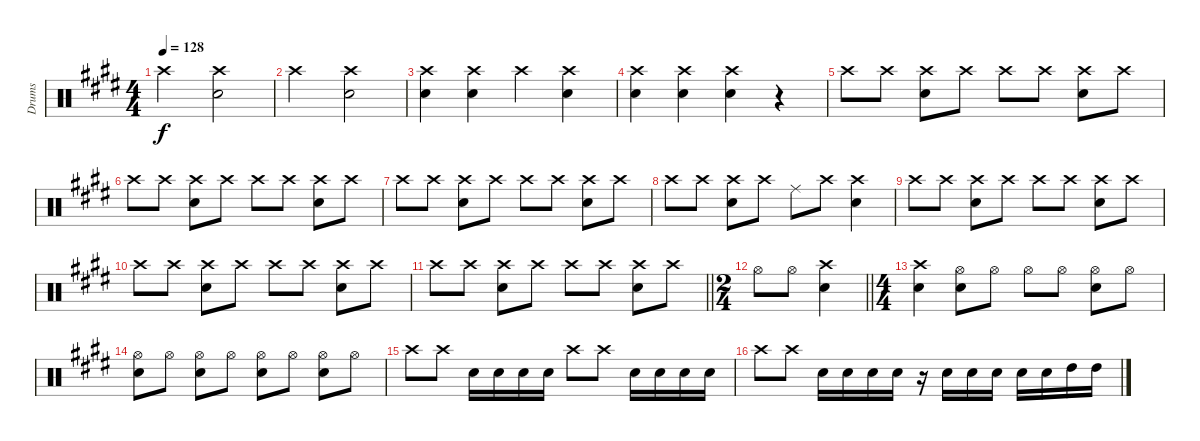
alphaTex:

\track ("Drums" "Drums") {instrument percussion}
\staff {score}
\articulation defaults
\ts (4 4)
\tempo 128
\clef neutral
\ks e "Crash high (hit)".2{dy f}
("Crash high (hit)" "Snare (hit) 2").2 |
"Crash high (hit)".2 ("Crash high (hit)" "Snare (hit) 2").2 |
("Crash high (hit)" "Snare (hit) 2").4 ("Crash high (hit)" "Snare (hit) 2").4 "Crash high (hit)".4 ("Crash high (hit)" "Snare (hit) 2").4 |
("Crash high (hit)" "Snare (hit) 2").4 ("Crash high (hit)" "Snare (hit) 2").4 ("Crash high (hit)" "Snare (hit) 2").4 r.4 |
"Crash high (hit)".8 "Crash high (hit)".8 ("Crash high (hit)" "Snare (hit) 2").8 "Crash high (hit)".8 "Crash high (hit)".8 "Crash high (hit)".8 ("Crash high (hit)" "Snare (hit) 2").8 "Crash high (hit)".8 |
"Crash high (hit)".8 "Crash high (hit)".8 ("Crash high (hit)" "Snare (hit) 2").8 "Crash high (hit)".8 "Crash high (hit)".8 "Crash high (hit)".8 ("Crash high (hit)" "Snare (hit) 2").8 "Crash high (hit)".8 |
"Crash high (hit)".8 "Crash high (hit)".8 ("Crash high (hit)" "Snare (hit) 2").8 "Crash high (hit)".8 "Crash high (hit)".8 "Crash high (hit)".8 ("Crash high (hit)" "Snare (hit) 2").8 "Crash high (hit)".8 |
"Crash high (hit)".8 "Crash high (hit)".8 ("Crash high (hit)" "Snare (hit) 2").8 "Crash high (hit)".8 "Ride (middle)".8 "Crash high (hit)".8 ("Crash high (hit)" "Snare (hit) 2").4 |
"Crash high (hit)".8 "Crash high (hit)".8 ("Crash high (hit)" "Snare (hit) 2").8 "Crash high (hit)".8 "Crash high (hit)".8 "Crash high (hit)".8 ("Crash high (hit)" "Snare (hit) 2").8 "Crash high (hit)".8 |
"Crash high (hit)".8 "Crash high (hit)".8 ("Crash high (hit)" "Snare (hit) 2").8 "Crash high (hit)".8 "Crash high (hit)".8 "Crash high (hit)".8 ("Crash high (hit)" "Snare (hit) 2").8 "Crash high (hit)".8 |
\barLineRight lightlight "Crash high (hit)".8 "Crash high (hit)".8
("Crash high (hit)" "Snare (hit) 2").8 "Crash high (hit)".8 "Crash high (hit)".8 "Crash high (hit)".8 ("Crash high (hit)" "Snare (hit) 2").8 "Crash high (hit)".8 |
\ts (2 4)
\barLineRight lightlight "Hi-Hat (open)".8 "Hi-Hat (open)".8
("Crash high (hit)" "Snare (hit) 2").4 |
\ts (4 4)
("Crash high (hit)" "Snare (hit) 2").4 ("Hi-Hat (open)" "Snare (hit) 2").8 "Hi-Hat (open)".8 "Hi-Hat (open)".8 "Hi-Hat (open)".8 ("Hi-Hat (open)" "Snare (hit) 2").8 "Hi-Hat (open)".8 |
("Hi-Hat (open)" "Snare (hit) 2").8 "Hi-Hat (open)".8 ("Hi-Hat (open)" "Snare (hit) 2").8 "Hi-Hat (open)".8 ("Hi-Hat (open)" "Snare (hit) 2").8 "Hi-Hat (open)".8 ("Hi-Hat (open)" "Snare (hit) 2").8 "Hi-Hat (open)".8 |
"Crash high (hit)".8 "Crash high (hit)".8 "Snare (hit) 2".16 "Snare (hit) 2".16 "Snare (hit) 2".16 "Snare (hit) 2".16 "Crash high (hit)".8 "Crash high (hit)".8 "Snare (hit) 2".16 "Snare (hit) 2".16 "Snare (hit) 2".16 "Snare (hit) 2".16 |
"Crash high (hit)".8 "Crash high (hit)".8 "Snare (hit) 2".16 "Snare (hit) 2".16 "Snare (hit) 2".16 "Snare (hit) 2".16 r.16 "Snare (hit) 2".16 "Snare (hit) 2".16 "Snare (hit) 2".16 "Snare (hit) 2".16 "Snare (hit) 2".16 "High Tom (hit)".16 "High Tom (hit)".16
